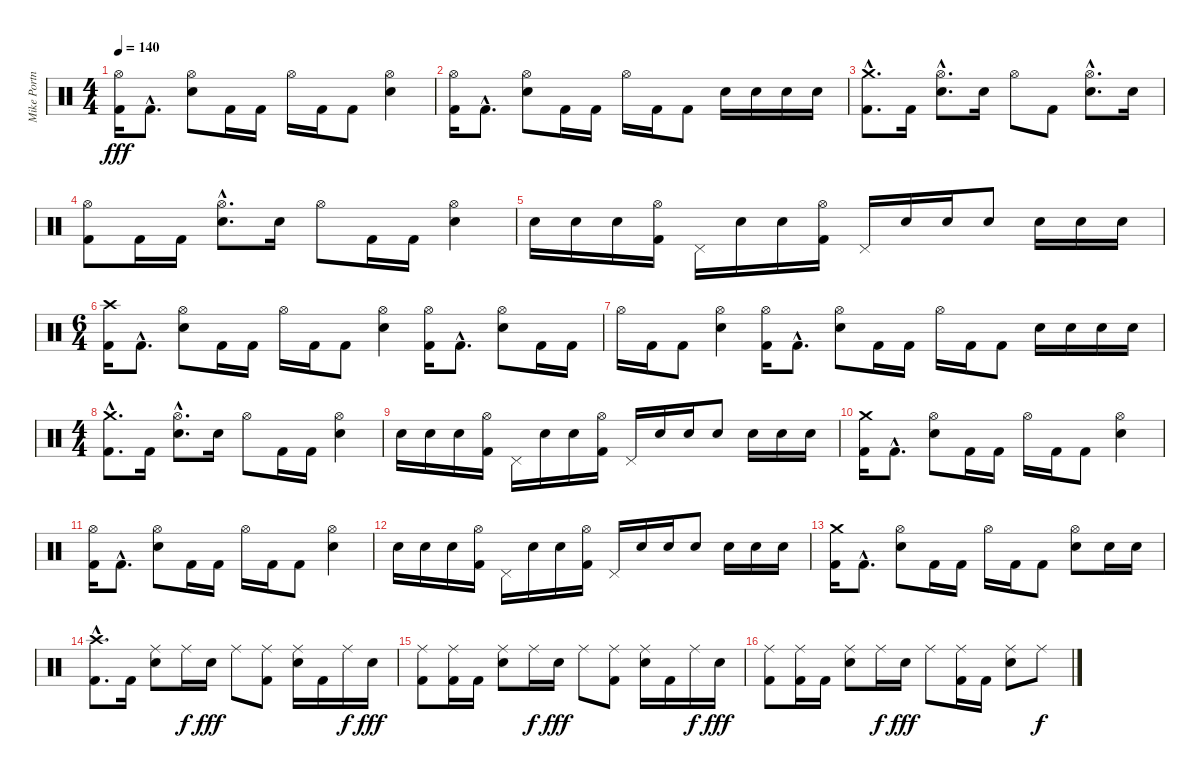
\track ("Mike Portnoy - Drum" "Mike Portn") {instrument percussion}
\staff {score}
\articulation defaults
\ts (4 4)
\tempo 140
\clef neutral
\ks c
("Hi-Hat (open)" "Kick (hit) 2").16{dy fff} "Kick (hit) 2"{hac}.8{d} ("Hi-Hat (open)" "Snare (hit) 2").8 "Kick (hit) 2".16 "Kick (hit) 2".16 "Hi-Hat (open)".16 "Kick (hit) 2".16 "Kick (hit) 2".8 ("Hi-Hat (open)" "Snare (hit) 2").4 |
("Hi-Hat (open)" "Kick (hit) 2").16 "Kick (hit) 2"{hac}.8{d} ("Hi-Hat (open)" "Snare (hit) 2").8 "Kick (hit) 2".16 "Kick (hit) 2".16 "Hi-Hat (open)".16 "Kick (hit) 2".16 "Kick (hit) 2".8 "Snare (hit) 2".16 "Snare (hit) 2".16 "Snare (hit) 2".16 "Snare (hit) 2".16 |
("Crash medium (hit)"{hac} "Kick (hit) 2"{hac}).8{d} "Kick (hit) 2".16 ("Hi-Hat (open)"{hac} "Snare (hit) 2"{hac}).8{d} "Snare (hit) 2".16 "Hi-Hat (open)".8 "Kick (hit) 2".8 ("Hi-Hat (open)"{hac} "Snare (hit) 2"{hac}).8{d} "Snare (hit) 2".16 |
("Hi-Hat (open)" "Kick (hit) 2").8 "Kick (hit) 2".16 "Kick (hit) 2".16 ("Hi-Hat (open)"{hac} "Snare (hit) 2"{hac}).8{d} "Snare (hit) 2".16 "Hi-Hat (open)".8 "Kick (hit) 2".16 "Kick (hit) 2".16 ("Hi-Hat (open)" "Snare (hit) 2").4 |
"Snare (hit) 2".16 "Snare (hit) 2".16 "Snare (hit) 2".16 ("Hi-Hat (open)" "Kick (hit) 2").16 "Pedal Hi-Hat (hit)".16 "Snare (hit) 2".16 "Snare (hit) 2".16 ("Hi-Hat (open)" "Kick (hit) 2").16 "Pedal Hi-Hat (hit)".16 "Snare (hit) 2".16 "Snare (hit) 2".16 "Snare (hit) 2".8 "Snare (hit) 2".16 "Snare (hit) 2".16 "Snare (hit) 2".16 |
\ts (6 4)
("Crash high (hit)" "Kick (hit) 2").16 "Kick (hit) 2"{hac}.8{d} ("Hi-Hat (open)" "Snare (hit) 2").8 "Kick (hit) 2".16 "Kick (hit) 2".16 "Hi-Hat (open)".16 "Kick (hit) 2".16 "Kick (hit) 2".8 ("Hi-Hat (open)" "Snare (hit) 2").4 ("Hi-Hat (open)" "Kick (hit) 2").16 "Kick (hit) 2"{hac}.8{d} ("Hi-Hat (open)" "Snare (hit) 2").8 "Kick (hit) 2".16 "Kick (hit) 2".16 |
"Hi-Hat (open)".16 "Kick (hit) 2".16 "Kick (hit) 2".8 ("Hi-Hat (open)" "Snare (hit) 2").4 ("Hi-Hat (open)" "Kick (hit) 2").16 "Kick (hit) 2"{hac}.8{d} ("Hi-Hat (open)" "Snare (hit) 2").8 "Kick (hit) 2".16 "Kick (hit) 2".16 "Hi-Hat (open)".16 "Kick (hit) 2".16 "Kick (hit) 2".8 "Snare (hit) 2".16 "Snare (hit) 2".16 "Snare (hit) 2".16 "Snare (hit) 2".16 |
\ts (4 4)
("Crash medium (hit)"{hac} "Kick (hit) 2"{hac}).8{d} "Kick (hit) 2".16 ("Hi-Hat (open)"{hac} "Snare (hit) 2"{hac}).8{d} "Snare (hit) 2".16 "Hi-Hat (open)".8 "Kick (hit) 2".16 "Kick (hit) 2".16 ("Hi-Hat (open)" "Snare (hit) 2").4 |
"Snare (hit) 2".16 "Snare (hit) 2".16 "Snare (hit) 2".16 ("Hi-Hat (open)" "Kick (hit) 2").16 "Pedal Hi-Hat (hit)".16 "Snare (hit) 2".16 "Snare (hit) 2".16 ("Hi-Hat (open)" "Kick (hit) 2").16 "Pedal Hi-Hat (hit)".16 "Snare (hit) 2".16 "Snare (hit) 2".16 "Snare (hit) 2".8 "Snare (hit) 2".16 "Snare (hit) 2".16 "Snare (hit) 2".16 |
("Crash medium (hit)" "Kick (hit) 2").16 "Kick (hit) 2"{hac}.8{d} ("Hi-Hat (open)" "Snare (hit) 2").8 "Kick (hit) 2".16 "Kick (hit) 2".16 "Hi-Hat (open)".16 "Kick (hit) 2".16 "Kick (hit) 2".8 ("Hi-Hat (open)" "Snare (hit) 2").4 |
("Hi-Hat (open)" "Kick (hit) 2").16 "Kick (hit) 2"{hac}.8{d} ("Hi-Hat (open)" "Snare (hit) 2").8 "Kick (hit) 2".16 "Kick (hit) 2".16 "Hi-Hat (open)".16 "Kick (hit) 2".16 "Kick (hit) 2".8 ("Hi-Hat (open)" "Snare (hit) 2").4 |
"Snare (hit) 2".16 "Snare (hit) 2".16 "Snare (hit) 2".16 ("Hi-Hat (open)" "Kick (hit) 2").16 "Pedal Hi-Hat (hit)".16 "Snare (hit) 2".16 "Snare (hit) 2".16 ("Hi-Hat (open)" "Kick (hit) 2").16 "Pedal Hi-Hat (hit)".16 "Snare (hit) 2".16 "Snare (hit) 2".16 "Snare (hit) 2".8 "Snare (hit) 2".16 "Snare (hit) 2".16 "Snare (hit) 2".16 |
("Crash medium (hit)" "Kick (hit) 2").16 "Kick (hit) 2"{hac}.8{d} ("Hi-Hat (open)" "Snare (hit) 2").8 "Kick (hit) 2".16 "Kick (hit) 2".16 "Hi-Hat (open)".16 "Kick (hit) 2".16 "Kick (hit) 2".8 ("Hi-Hat (open)" "Snare (hit) 2").8 "Snare (hit) 2".16 "Snare (hit) 2".16 |
("Crash high (hit)"{hac} "Kick (hit) 2"{hac}).8{d} "Kick (hit) 2".16 ("Ride (middle)" "Snare (hit) 2").8 "Ride (middle)".16{dy f} "Snare (hit) 2".16{dy fff} "Ride (middle)".8 ("Ride (middle)" "Kick (hit) 2").8 ("Ride (middle)" "Snare (hit) 2").16 "Kick (hit) 2".16 "Ride (middle)".16{dy f} "Snare (hit) 2".16{dy fff} |
("Ride (middle)" "Kick (hit) 2").8 ("Ride (middle)" "Kick (hit) 2").16 "Kick (hit) 2".16 ("Ride (middle)" "Snare (hit) 2").8 "Ride (middle)".16{dy f} "Snare (hit) 2".16{dy fff} "Ride (middle)".8 ("Ride (middle)" "Kick (hit) 2").8 ("Ride (middle)" "Snare (hit) 2").16 "Kick (hit) 2".16 "Ride (middle)".16{dy f} "Snare (hit) 2".16{dy fff} |
("Ride (middle)" "Kick (hit) 2").8 ("Ride (middle)" "Kick (hit) 2").16 "Kick (hit) 2".16 ("Ride (middle)" "Snare (hit) 2").8 "Ride (middle)".16{dy f} "Snare (hit) 2".16{dy fff} "Ride (middle)".8 ("Ride (middle)" "Kick (hit) 2").16 "Kick (hit) 2".16 ("Ride (middle)" "Snare (hit) 2").8 "Ride (middle)".8{dy f}
